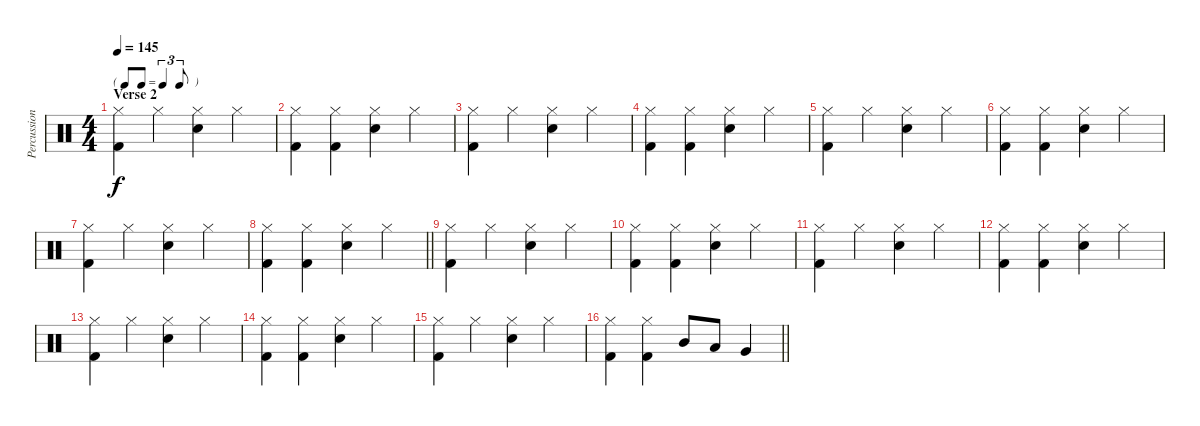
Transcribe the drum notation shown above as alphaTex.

\track ("Percussion" "Percussion") {instrument percussion}
\staff {score}
\articulation defaults
\ts (4 4)
\tf triplet8th
\section ("" "Verse 2")
\tempo 145
\clef neutral
\ks c
("Hi-Hat (closed)" "Kick (hit) 2").4{dy f} "Hi-Hat (closed)".4 ("Hi-Hat (closed)" "Electric Snare (hit)").4 "Hi-Hat (closed)".4 |
("Hi-Hat (closed)" "Kick (hit) 2").4 ("Hi-Hat (closed)" "Kick (hit) 2").4 ("Hi-Hat (closed)" "Electric Snare (hit)").4 "Hi-Hat (closed)".4 |
("Hi-Hat (closed)" "Kick (hit) 2").4 "Hi-Hat (closed)".4 ("Hi-Hat (closed)" "Electric Snare (hit)").4 "Hi-Hat (closed)".4 |
("Hi-Hat (closed)" "Kick (hit) 2").4 ("Hi-Hat (closed)" "Kick (hit) 2").4 ("Hi-Hat (closed)" "Electric Snare (hit)").4 "Hi-Hat (closed)".4 |
("Hi-Hat (closed)" "Kick (hit) 2").4 "Hi-Hat (closed)".4 ("Hi-Hat (closed)" "Electric Snare (hit)").4 "Hi-Hat (closed)".4 |
("Hi-Hat (closed)" "Kick (hit) 2").4 ("Hi-Hat (closed)" "Kick (hit) 2").4 ("Hi-Hat (closed)" "Electric Snare (hit)").4 "Hi-Hat (closed)".4 |
("Hi-Hat (closed)" "Kick (hit) 2").4 "Hi-Hat (closed)".4 ("Hi-Hat (closed)" "Electric Snare (hit)").4 "Hi-Hat (closed)".4 |
\barLineRight lightlight
("Hi-Hat (closed)" "Kick (hit) 2").4 ("Hi-Hat (closed)" "Kick (hit) 2").4 ("Hi-Hat (closed)" "Electric Snare (hit)").4 "Hi-Hat (closed)".4 |
("Hi-Hat (closed)" "Kick (hit) 2").4 "Hi-Hat (closed)".4 ("Hi-Hat (closed)" "Electric Snare (hit)").4 "Hi-Hat (closed)".4 |
("Hi-Hat (closed)" "Kick (hit) 2").4 ("Hi-Hat (closed)" "Kick (hit) 2").4 ("Hi-Hat (closed)" "Electric Snare (hit)").4 "Hi-Hat (closed)".4 |
("Hi-Hat (closed)" "Kick (hit) 2").4 "Hi-Hat (closed)".4 ("Hi-Hat (closed)" "Electric Snare (hit)").4 "Hi-Hat (closed)".4 |
("Hi-Hat (closed)" "Kick (hit) 2").4 ("Hi-Hat (closed)" "Kick (hit) 2").4 ("Hi-Hat (closed)" "Electric Snare (hit)").4 "Hi-Hat (closed)".4 |
("Hi-Hat (closed)" "Kick (hit) 2").4 "Hi-Hat (closed)".4 ("Hi-Hat (closed)" "Electric Snare (hit)").4 "Hi-Hat (closed)".4 |
("Hi-Hat (closed)" "Kick (hit) 2").4 ("Hi-Hat (closed)" "Kick (hit) 2").4 ("Hi-Hat (closed)" "Electric Snare (hit)").4 "Hi-Hat (closed)".4 |
("Hi-Hat (closed)" "Kick (hit) 2").4 "Hi-Hat (closed)".4 ("Hi-Hat (closed)" "Electric Snare (hit)").4 "Hi-Hat (closed)".4 |
\barLineRight lightlight
("Hi-Hat (closed)" "Kick (hit) 2").4 ("Hi-Hat (closed)" "Kick (hit) 2").4 "Mid Tom (hit)".8 "Low Tom (hit)".8 "Very Low Tom (hit)".4
